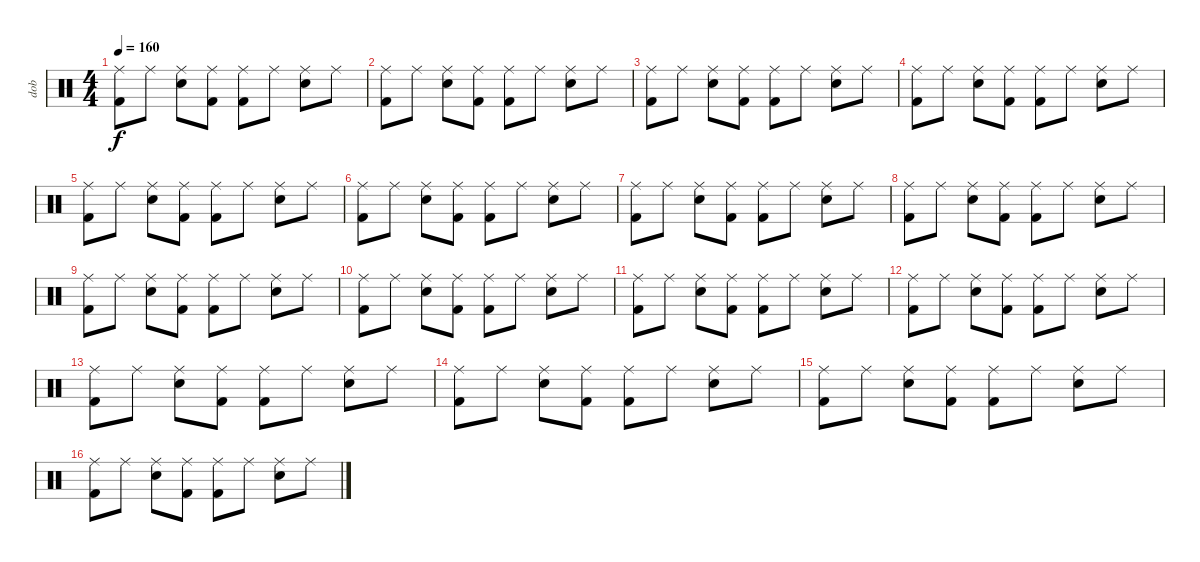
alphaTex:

\track ("dob" "dob") {instrument percussion}
\staff {score}
\articulation defaults
\ts (4 4)
\tempo 160
\clef neutral
\ks c
("Ride (middle)" "Kick (hit) 2").8{dy f} "Ride (middle)".8 ("Ride (middle)" "Snare (hit) 2").8 ("Ride (middle)" "Kick (hit) 2").8 ("Ride (middle)" "Kick (hit) 2").8 "Ride (middle)".8 ("Ride (middle)" "Snare (hit) 2").8 "Ride (middle)".8 |
("Ride (middle)" "Kick (hit) 2").8 "Ride (middle)".8 ("Ride (middle)" "Snare (hit) 2").8 ("Ride (middle)" "Kick (hit) 2").8 ("Ride (middle)" "Kick (hit) 2").8 "Ride (middle)".8 ("Ride (middle)" "Snare (hit) 2").8 "Ride (middle)".8 |
("Ride (middle)" "Kick (hit) 2").8 "Ride (middle)".8 ("Ride (middle)" "Snare (hit) 2").8 ("Ride (middle)" "Kick (hit) 2").8 ("Ride (middle)" "Kick (hit) 2").8 "Ride (middle)".8 ("Ride (middle)" "Snare (hit) 2").8 "Ride (middle)".8 |
("Ride (middle)" "Kick (hit) 2").8 "Ride (middle)".8 ("Ride (middle)" "Snare (hit) 2").8 ("Ride (middle)" "Kick (hit) 2").8 ("Ride (middle)" "Kick (hit) 2").8 "Ride (middle)".8 ("Ride (middle)" "Snare (hit) 2").8 "Ride (middle)".8 |
("Ride (middle)" "Kick (hit) 2").8 "Ride (middle)".8 ("Ride (middle)" "Snare (hit) 2").8 ("Ride (middle)" "Kick (hit) 2").8 ("Ride (middle)" "Kick (hit) 2").8 "Ride (middle)".8 ("Ride (middle)" "Snare (hit) 2").8 "Ride (middle)".8 |
("Ride (middle)" "Kick (hit) 2").8 "Ride (middle)".8 ("Ride (middle)" "Snare (hit) 2").8 ("Ride (middle)" "Kick (hit) 2").8 ("Ride (middle)" "Kick (hit) 2").8 "Ride (middle)".8 ("Ride (middle)" "Snare (hit) 2").8 "Ride (middle)".8 |
("Ride (middle)" "Kick (hit) 2").8 "Ride (middle)".8 ("Ride (middle)" "Snare (hit) 2").8 ("Ride (middle)" "Kick (hit) 2").8 ("Ride (middle)" "Kick (hit) 2").8 "Ride (middle)".8 ("Ride (middle)" "Snare (hit) 2").8 "Ride (middle)".8 |
("Ride (middle)" "Kick (hit) 2").8 "Ride (middle)".8 ("Ride (middle)" "Snare (hit) 2").8 ("Ride (middle)" "Kick (hit) 2").8 ("Ride (middle)" "Kick (hit) 2").8 "Ride (middle)".8 ("Ride (middle)" "Snare (hit) 2").8 "Ride (middle)".8 |
("Ride (middle)" "Kick (hit) 2").8 "Ride (middle)".8 ("Ride (middle)" "Snare (hit) 2").8 ("Ride (middle)" "Kick (hit) 2").8 ("Ride (middle)" "Kick (hit) 2").8 "Ride (middle)".8 ("Ride (middle)" "Snare (hit) 2").8 "Ride (middle)".8 |
("Ride (middle)" "Kick (hit) 2").8 "Ride (middle)".8 ("Ride (middle)" "Snare (hit) 2").8 ("Ride (middle)" "Kick (hit) 2").8 ("Ride (middle)" "Kick (hit) 2").8 "Ride (middle)".8 ("Ride (middle)" "Snare (hit) 2").8 "Ride (middle)".8 |
("Ride (middle)" "Kick (hit) 2").8 "Ride (middle)".8 ("Ride (middle)" "Snare (hit) 2").8 ("Ride (middle)" "Kick (hit) 2").8 ("Ride (middle)" "Kick (hit) 2").8 "Ride (middle)".8 ("Ride (middle)" "Snare (hit) 2").8 "Ride (middle)".8 |
("Ride (middle)" "Kick (hit) 2").8 "Ride (middle)".8 ("Ride (middle)" "Snare (hit) 2").8 ("Ride (middle)" "Kick (hit) 2").8 ("Ride (middle)" "Kick (hit) 2").8 "Ride (middle)".8 ("Ride (middle)" "Snare (hit) 2").8 "Ride (middle)".8 |
("Ride (middle)" "Kick (hit) 2").8 "Ride (middle)".8 ("Ride (middle)" "Snare (hit) 2").8 ("Ride (middle)" "Kick (hit) 2").8 ("Ride (middle)" "Kick (hit) 2").8 "Ride (middle)".8 ("Ride (middle)" "Snare (hit) 2").8 "Ride (middle)".8 |
("Ride (middle)" "Kick (hit) 2").8 "Ride (middle)".8 ("Ride (middle)" "Snare (hit) 2").8 ("Ride (middle)" "Kick (hit) 2").8 ("Ride (middle)" "Kick (hit) 2").8 "Ride (middle)".8 ("Ride (middle)" "Snare (hit) 2").8 "Ride (middle)".8 |
("Ride (middle)" "Kick (hit) 2").8 "Ride (middle)".8 ("Ride (middle)" "Snare (hit) 2").8 ("Ride (middle)" "Kick (hit) 2").8 ("Ride (middle)" "Kick (hit) 2").8 "Ride (middle)".8 ("Ride (middle)" "Snare (hit) 2").8 "Ride (middle)".8 |
("Ride (middle)" "Kick (hit) 2").8 "Ride (middle)".8 ("Ride (middle)" "Snare (hit) 2").8 ("Ride (middle)" "Kick (hit) 2").8 ("Ride (middle)" "Kick (hit) 2").8 "Ride (middle)".8 ("Ride (middle)" "Snare (hit) 2").8 "Ride (middle)".8
